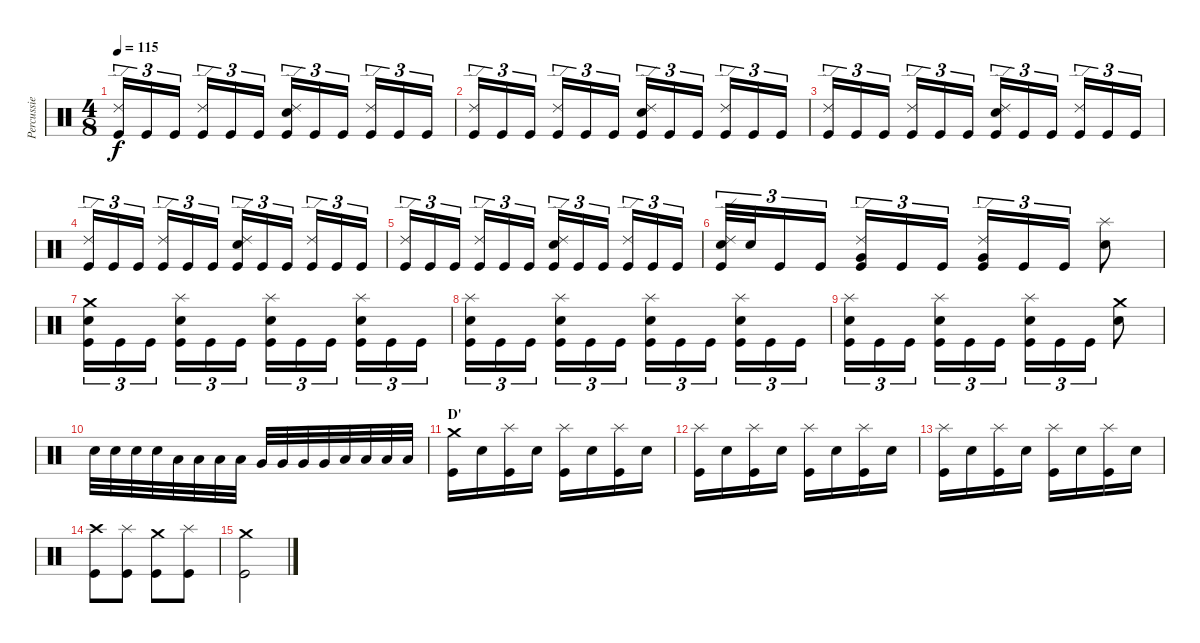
\track ("Percussie" "Percussie") {instrument percussion}
\staff {score}
\articulation defaults
\ts (4 8)
\tempo 115
\clef neutral
\ks c
("Ride (edge) 2" "Kick (hit)").16{tu (3 2) dy f} "Kick (hit)".16{tu (3 2)} "Kick (hit)".16{tu (3 2)} ("Ride (edge) 2" "Kick (hit)").16{tu (3 2)} "Kick (hit)".16{tu (3 2)} "Kick (hit)".16{tu (3 2)} ("Ride (edge) 2" "Electric Snare (hit)" "Kick (hit)").16{tu (3 2)} "Kick (hit)".16{tu (3 2)} "Kick (hit)".16{tu (3 2)} ("Ride (edge) 2" "Kick (hit)").16{tu (3 2)} "Kick (hit)".16{tu (3 2)} "Kick (hit)".16{tu (3 2)} |
("Ride (edge) 2" "Kick (hit)").16{tu (3 2)} "Kick (hit)".16{tu (3 2)} "Kick (hit)".16{tu (3 2)} ("Ride (edge) 2" "Kick (hit)").16{tu (3 2)} "Kick (hit)".16{tu (3 2)} "Kick (hit)".16{tu (3 2)} ("Ride (edge) 2" "Electric Snare (hit)" "Kick (hit)").16{tu (3 2)} "Kick (hit)".16{tu (3 2)} "Kick (hit)".16{tu (3 2)} ("Ride (edge) 2" "Kick (hit)").16{tu (3 2)} "Kick (hit)".16{tu (3 2)} "Kick (hit)".16{tu (3 2)} |
("Ride (edge) 2" "Kick (hit)").16{tu (3 2)} "Kick (hit)".16{tu (3 2)} "Kick (hit)".16{tu (3 2)} ("Ride (edge) 2" "Kick (hit)").16{tu (3 2)} "Kick (hit)".16{tu (3 2)} "Kick (hit)".16{tu (3 2)} ("Ride (edge) 2" "Electric Snare (hit)" "Kick (hit)").16{tu (3 2)} "Kick (hit)".16{tu (3 2)} "Kick (hit)".16{tu (3 2)} ("Ride (edge) 2" "Kick (hit)").16{tu (3 2)} "Kick (hit)".16{tu (3 2)} "Kick (hit)".16{tu (3 2)} |
("Ride (edge) 2" "Kick (hit)").16{tu (3 2)} "Kick (hit)".16{tu (3 2)} "Kick (hit)".16{tu (3 2)} ("Ride (edge) 2" "Kick (hit)").16{tu (3 2)} "Kick (hit)".16{tu (3 2)} "Kick (hit)".16{tu (3 2)} ("Ride (edge) 2" "Electric Snare (hit)" "Kick (hit)").16{tu (3 2)} "Kick (hit)".16{tu (3 2)} "Kick (hit)".16{tu (3 2)} ("Ride (edge) 2" "Kick (hit)").16{tu (3 2)} "Kick (hit)".16{tu (3 2)} "Kick (hit)".16{tu (3 2)} |
("Ride (edge) 2" "Kick (hit)").16{tu (3 2)} "Kick (hit)".16{tu (3 2)} "Kick (hit)".16{tu (3 2)} ("Ride (edge) 2" "Kick (hit)").16{tu (3 2)} "Kick (hit)".16{tu (3 2)} "Kick (hit)".16{tu (3 2)} ("Ride (edge) 2" "Electric Snare (hit)" "Kick (hit)").16{tu (3 2)} "Kick (hit)".16{tu (3 2)} "Kick (hit)".16{tu (3 2)} ("Ride (edge) 2" "Kick (hit)").16{tu (3 2)} "Kick (hit)".16{tu (3 2)} "Kick (hit)".16{tu (3 2)} |
("Ride (edge) 2" "Electric Snare (hit)" "Kick (hit)").32{tu (3 2)} "Electric Snare (hit)".32{tu (3 2)} "Kick (hit)".16{tu (3 2)} "Kick (hit)".16{tu (3 2)} ("Ride (edge) 2" "Very Low Tom (hit)" "Kick (hit)").16{tu (3 2)} "Kick (hit)".16{tu (3 2)} "Kick (hit)".16{tu (3 2)} ("Ride (edge) 2" "Very Low Tom (hit)" "Kick (hit)").16{tu (3 2)} "Kick (hit)".16{tu (3 2)} "Kick (hit)".16{tu (3 2)} ("Splash (hit)" "Electric Snare (hit)").8 |
("Crash medium (hit)" "Electric Snare (hit)" "Kick (hit)").16{tu (3 2)} "Kick (hit)".16{tu (3 2)} "Kick (hit)".16{tu (3 2)} ("Splash (hit)" "Electric Snare (hit)" "Kick (hit)").16{tu (3 2)} "Kick (hit)".16{tu (3 2)} "Kick (hit)".16{tu (3 2)} ("Splash (hit)" "Electric Snare (hit)" "Kick (hit)").16{tu (3 2)} "Kick (hit)".16{tu (3 2)} "Kick (hit)".16{tu (3 2)} ("Splash (hit)" "Electric Snare (hit)" "Kick (hit)").16{tu (3 2)} "Kick (hit)".16{tu (3 2)} "Kick (hit)".16{tu (3 2)} |
("Splash (hit)" "Electric Snare (hit)" "Kick (hit)").16{tu (3 2)} "Kick (hit)".16{tu (3 2)} "Kick (hit)".16{tu (3 2)} ("Splash (hit)" "Electric Snare (hit)" "Kick (hit)").16{tu (3 2)} "Kick (hit)".16{tu (3 2)} "Kick (hit)".16{tu (3 2)} ("Splash (hit)" "Electric Snare (hit)" "Kick (hit)").16{tu (3 2)} "Kick (hit)".16{tu (3 2)} "Kick (hit)".16{tu (3 2)} ("Splash (hit)" "Electric Snare (hit)" "Kick (hit)").16{tu (3 2)} "Kick (hit)".16{tu (3 2)} "Kick (hit)".16{tu (3 2)} |
("Splash (hit)" "Electric Snare (hit)" "Kick (hit)").16{tu (3 2)} "Kick (hit)".16{tu (3 2)} "Kick (hit)".16{tu (3 2)} ("Splash (hit)" "Electric Snare (hit)" "Kick (hit)").16{tu (3 2)} "Kick (hit)".16{tu (3 2)} "Kick (hit)".16{tu (3 2)} ("Splash (hit)" "Electric Snare (hit)" "Kick (hit)").16{tu (3 2)} "Kick (hit)".16{tu (3 2)} "Kick (hit)".16{tu (3 2)} ("Crash medium (hit)" "Electric Snare (hit)").8 |
"Electric Snare (hit)".32 "Electric Snare (hit)".32 "Electric Snare (hit)".32 "Electric Snare (hit)".32 "Low Tom (hit)".32 "Low Tom (hit)".32 "Low Tom (hit)".32 "Low Tom (hit)".32 "Very Low Tom (hit)".32 "Very Low Tom (hit)".32 "Very Low Tom (hit)".32 "Very Low Tom (hit)".32 "Low Floor Tom (hit)".32 "Low Floor Tom (hit)".32 "Low Floor Tom (hit)".32 "Low Floor Tom (hit)".32 |
\section ("" "D'")
("Crash medium (hit)" "Kick (hit)").16 "Electric Snare (hit)".16 ("Splash (hit)" "Kick (hit)").16 "Electric Snare (hit)".16 ("Splash (hit)" "Kick (hit)").16 "Electric Snare (hit)".16 ("Splash (hit)" "Kick (hit)").16 "Electric Snare (hit)".16 |
("Splash (hit)" "Kick (hit)").16 "Electric Snare (hit)".16 ("Splash (hit)" "Kick (hit)").16 "Electric Snare (hit)".16 ("Splash (hit)" "Kick (hit)").16 "Electric Snare (hit)".16 ("Splash (hit)" "Kick (hit)").16 "Electric Snare (hit)".16 |
("Splash (hit)" "Kick (hit)").16 "Electric Snare (hit)".16 ("Splash (hit)" "Kick (hit)").16 "Electric Snare (hit)".16 ("Splash (hit)" "Kick (hit)").16 "Electric Snare (hit)".16 ("Splash (hit)" "Kick (hit)").16 "Electric Snare (hit)".16 |
("Crash high (hit)" "Kick (hit)").8 ("Splash (hit)" "Kick (hit)").8 ("Crash medium (hit)" "Kick (hit)").8 ("Splash (hit)" "Kick (hit)").8 |
("Crash medium (hit)" "Kick (hit)").2
